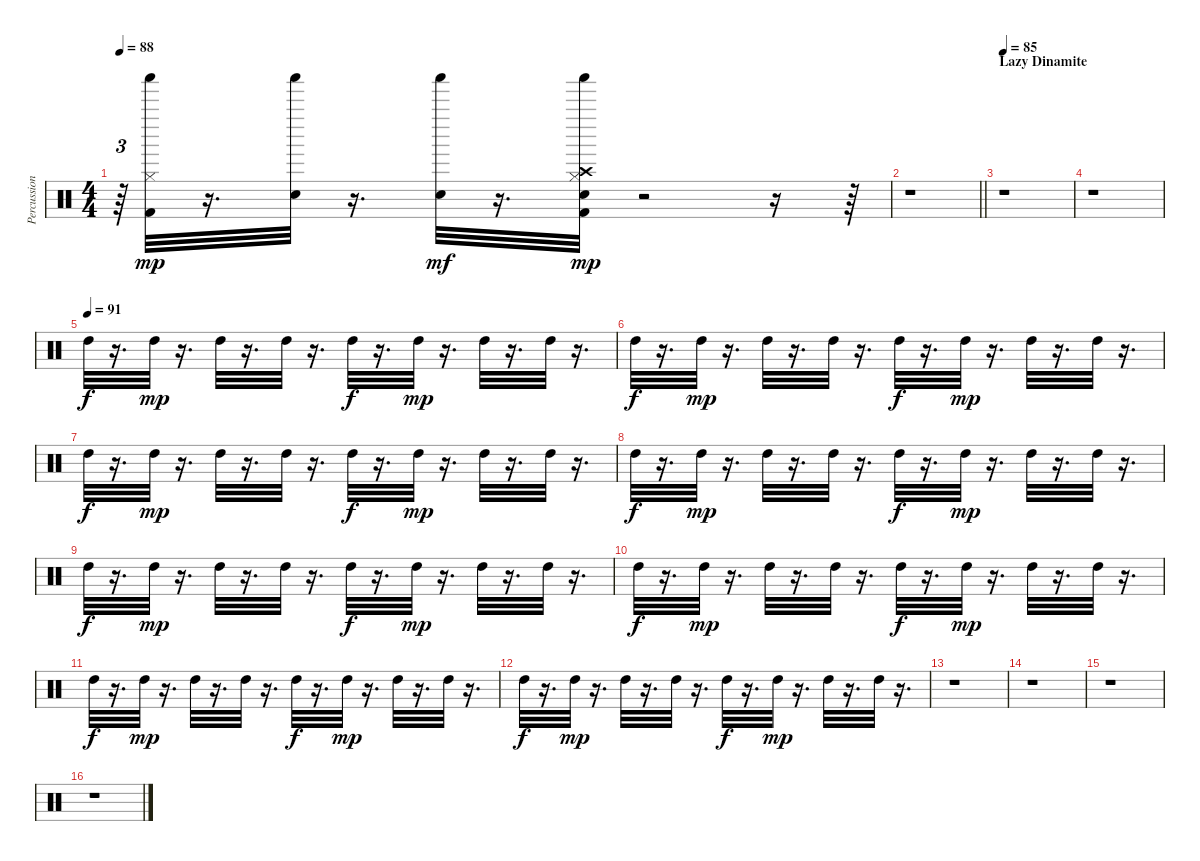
\track ("Percussion" "Percussion") {instrument percussion}
\staff {score}
\articulation defaults
\ts (4 4)
\tempo 88
\clef neutral
\ks c
r.64{tu (3 2) dy mp} ("Kick (hit) 2" "Shaker (hit)" "Hi-Hat (closed)").32 r.16{d} ("Snare (hit) 2" "Shaker (hit)").32 r.16{d} ("Shaker (hit)" "Snare (hit) 2").32{dy mf} r.16{d} ("Kick (hit) 2" "Crash high (hit)" "Snare (hit) 2" "Shaker (hit)" "Hi-Hat (closed)").32{dy mp} r.2 r.16 r.64 |
\barLineRight lightlight
r.1 |
\section ("" "Lazy Dinamite")
\tempo 85
r.1 |
r.1 |
\tempo (91)
"High Tom (hit)".32{dy f} r.16{d} "High Tom (hit)".32{dy mp} r.16{d} "High Tom (hit)".32 r.16{d} "High Tom (hit)".32 r.16{d} "High Tom (hit)".32{dy f} r.16{d} "High Tom (hit)".32{dy mp} r.16{d} "High Tom (hit)".32 r.16{d} "High Tom (hit)".32 r.16{d} |
"High Tom (hit)".32{dy f} r.16{d} "High Tom (hit)".32{dy mp} r.16{d} "High Tom (hit)".32 r.16{d} "High Tom (hit)".32 r.16{d} "High Tom (hit)".32{dy f} r.16{d} "High Tom (hit)".32{dy mp} r.16{d} "High Tom (hit)".32 r.16{d} "High Tom (hit)".32 r.16{d} |
"High Tom (hit)".32{dy f} r.16{d} "High Tom (hit)".32{dy mp} r.16{d} "High Tom (hit)".32 r.16{d} "High Tom (hit)".32 r.16{d} "High Tom (hit)".32{dy f} r.16{d} "High Tom (hit)".32{dy mp} r.16{d} "High Tom (hit)".32 r.16{d} "High Tom (hit)".32 r.16{d} |
"High Tom (hit)".32{dy f} r.16{d} "High Tom (hit)".32{dy mp} r.16{d} "High Tom (hit)".32 r.16{d} "High Tom (hit)".32 r.16{d} "High Tom (hit)".32{dy f} r.16{d} "High Tom (hit)".32{dy mp} r.16{d} "High Tom (hit)".32 r.16{d} "High Tom (hit)".32 r.16{d} |
"High Tom (hit)".32{dy f} r.16{d} "High Tom (hit)".32{dy mp} r.16{d} "High Tom (hit)".32 r.16{d} "High Tom (hit)".32 r.16{d} "High Tom (hit)".32{dy f} r.16{d} "High Tom (hit)".32{dy mp} r.16{d} "High Tom (hit)".32 r.16{d} "High Tom (hit)".32 r.16{d} |
"High Tom (hit)".32{dy f} r.16{d} "High Tom (hit)".32{dy mp} r.16{d} "High Tom (hit)".32 r.16{d} "High Tom (hit)".32 r.16{d} "High Tom (hit)".32{dy f} r.16{d} "High Tom (hit)".32{dy mp} r.16{d} "High Tom (hit)".32 r.16{d} "High Tom (hit)".32 r.16{d} |
"High Tom (hit)".32{dy f} r.16{d} "High Tom (hit)".32{dy mp} r.16{d} "High Tom (hit)".32 r.16{d} "High Tom (hit)".32 r.16{d} "High Tom (hit)".32{dy f} r.16{d} "High Tom (hit)".32{dy mp} r.16{d} "High Tom (hit)".32 r.16{d} "High Tom (hit)".32 r.16{d} |
"High Tom (hit)".32{dy f} r.16{d} "High Tom (hit)".32{dy mp} r.16{d} "High Tom (hit)".32 r.16{d} "High Tom (hit)".32 r.16{d} "High Tom (hit)".32{dy f} r.16{d} "High Tom (hit)".32{dy mp} r.16{d} "High Tom (hit)".32 r.16{d} "High Tom (hit)".32 r.16{d} |
r.1 |
r.1 |
r.1 |
r.1
